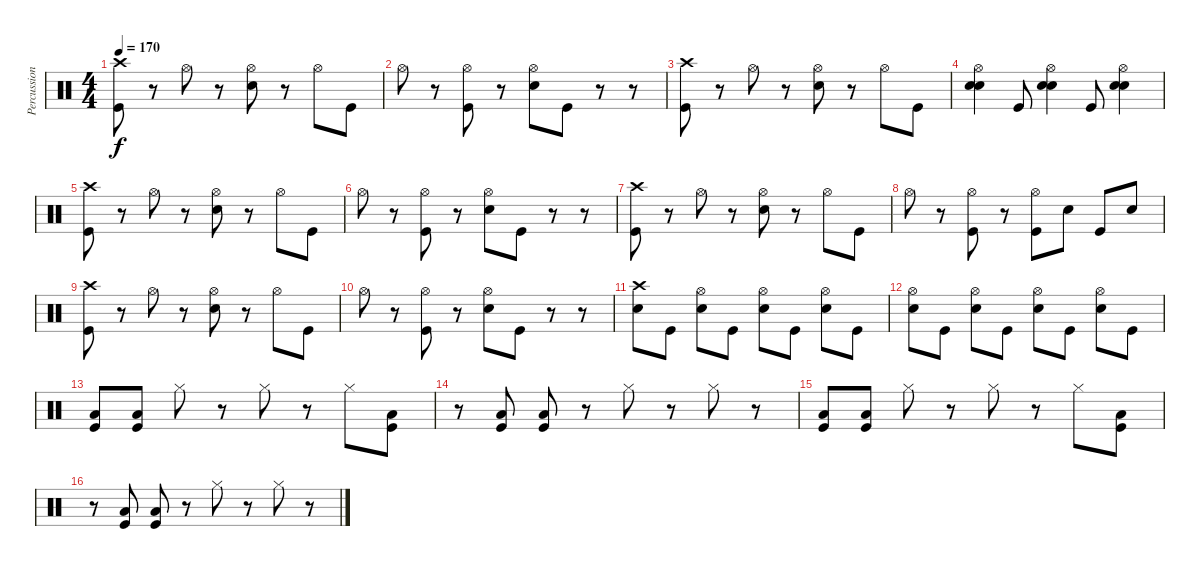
\track ("Percussion" "Percussion") {instrument percussion}
\staff {score}
\articulation defaults
\ts (4 4)
\tempo 170
\clef neutral
\ks c
("Crash high (hit)" "Kick (hit)").8{dy f} r.8 "Hi-Hat (open)".8 r.8 ("Hi-Hat (open)" "Snare (hit) 2").8 r.8 "Hi-Hat (open)".8 "Kick (hit)".8 |
"Hi-Hat (open)".8 r.8 ("Hi-Hat (open)" "Kick (hit)").8 r.8 ("Hi-Hat (open)" "Snare (hit) 2").8 "Kick (hit)".8 r.8 r.8 |
("Crash high (hit)" "Kick (hit)").8 r.8 "Hi-Hat (open)".8 r.8 ("Hi-Hat (open)" "Snare (hit) 2").8 r.8 "Hi-Hat (open)".8 "Kick (hit)".8 |
("Hi-Hat (open)" "Snare (hit) 2" "Snare (hit) 2").4 "Kick (hit)".8 ("Hi-Hat (open)" "Snare (hit) 2" "Snare (hit) 2").4 "Kick (hit)".8 ("Hi-Hat (open)" "Snare (hit) 2" "Snare (hit) 2").4 |
("Crash high (hit)" "Kick (hit)").8 r.8 "Hi-Hat (open)".8 r.8 ("Hi-Hat (open)" "Snare (hit) 2").8 r.8 "Hi-Hat (open)".8 "Kick (hit)".8 |
"Hi-Hat (open)".8 r.8 ("Hi-Hat (open)" "Kick (hit)").8 r.8 ("Hi-Hat (open)" "Snare (hit) 2").8 "Kick (hit)".8 r.8 r.8 |
("Crash high (hit)" "Kick (hit)").8 r.8 "Hi-Hat (open)".8 r.8 ("Hi-Hat (open)" "Snare (hit) 2").8 r.8 "Hi-Hat (open)".8 "Kick (hit)".8 |
"Hi-Hat (open)".8 r.8 ("Hi-Hat (open)" "Kick (hit)").8 r.8 ("Hi-Hat (open)" "Kick (hit)").8 "Snare (hit) 2".8 "Kick (hit)".8 "Snare (hit) 2".8 |
("Crash high (hit)" "Kick (hit)").8 r.8 "Hi-Hat (open)".8 r.8 ("Hi-Hat (open)" "Snare (hit) 2").8 r.8 "Hi-Hat (open)".8 "Kick (hit)".8 |
"Hi-Hat (open)".8 r.8 ("Hi-Hat (open)" "Kick (hit)").8 r.8 ("Hi-Hat (open)" "Snare (hit) 2").8 "Kick (hit)".8 r.8 r.8 |
("Crash high (hit)" "Snare (hit) 2").8 "Kick (hit)".8 ("Hi-Hat (open)" "Snare (hit) 2").8 "Kick (hit)".8 ("Hi-Hat (open)" "Snare (hit) 2").8 "Kick (hit)".8 ("Hi-Hat (open)" "Snare (hit) 2").8 "Kick (hit)".8 |
("Hi-Hat (open)" "Snare (hit) 2").8 "Kick (hit)".8 ("Hi-Hat (open)" "Snare (hit) 2").8 "Kick (hit)".8 ("Hi-Hat (open)" "Snare (hit) 2").8 "Kick (hit)".8 ("Hi-Hat (open)" "Snare (hit) 2").8 "Kick (hit)".8 |
("Low Tom (hit)" "Kick (hit)").8 ("Low Tom (hit)" "Kick (hit)").8 "Hi-Hat (closed)".8 r.8 "Hi-Hat (closed)".8 r.8 "Hi-Hat (closed)".8 ("Low Tom (hit)" "Kick (hit)").8 |
r.8 ("Low Tom (hit)" "Kick (hit)").8 ("Low Tom (hit)" "Kick (hit)").8 r.8 "Hi-Hat (closed)".8 r.8 "Hi-Hat (closed)".8 r.8 |
("Low Tom (hit)" "Kick (hit)").8 ("Low Tom (hit)" "Kick (hit)").8 "Hi-Hat (closed)".8 r.8 "Hi-Hat (closed)".8 r.8 "Hi-Hat (closed)".8 ("Low Tom (hit)" "Kick (hit)").8 |
r.8 ("Low Tom (hit)" "Kick (hit)").8 ("Low Tom (hit)" "Kick (hit)").8 r.8 "Hi-Hat (closed)".8 r.8 "Hi-Hat (closed)".8 r.8
